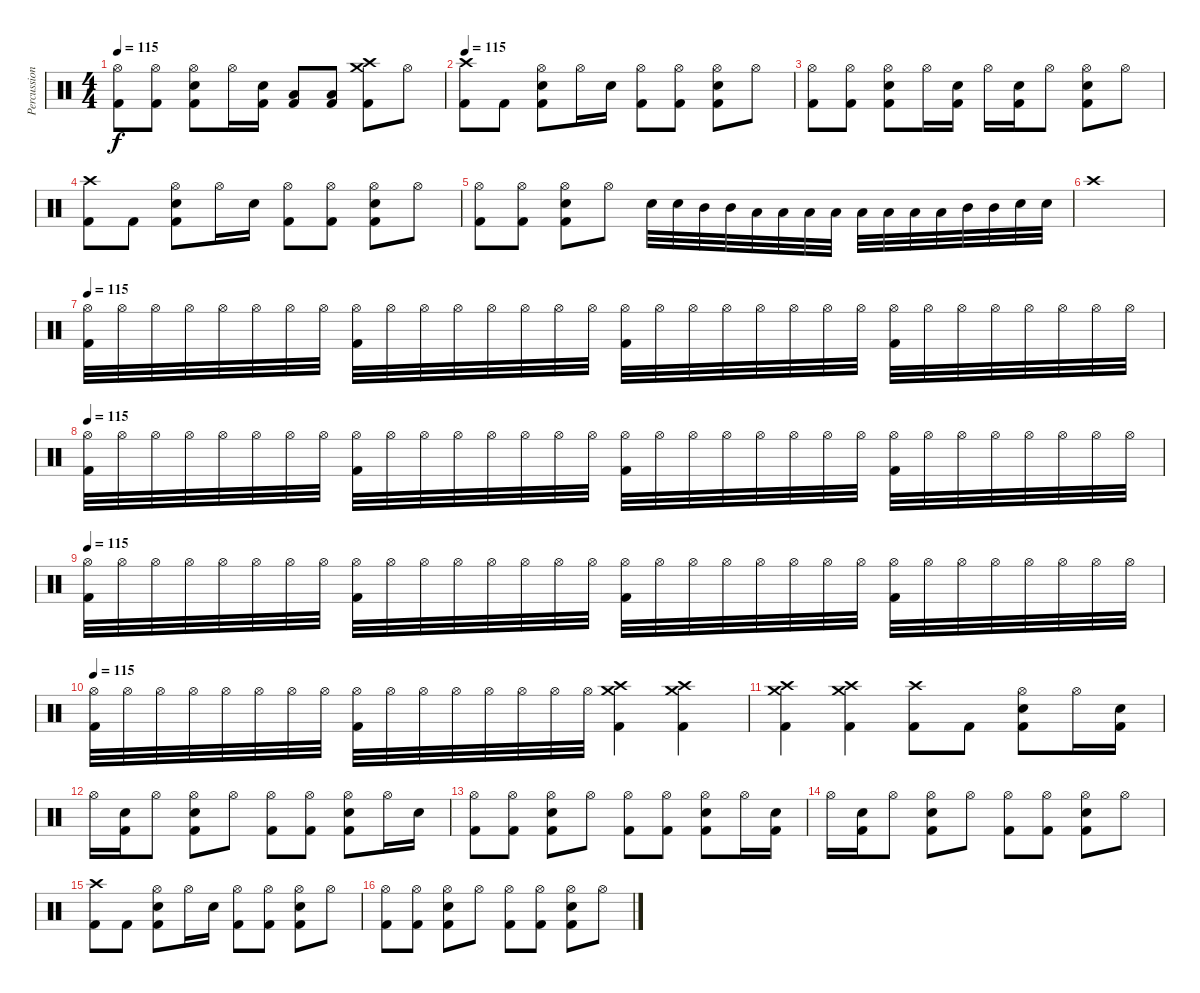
\track ("Percussion" "Percussion") {instrument percussion}
\staff {score}
\articulation defaults
\ts (4 4)
\tempo 115
\clef neutral
\ks c
("Hi-Hat (open)" "Kick (hit) 2").8{dy f} ("Hi-Hat (open)" "Kick (hit) 2").8 ("Hi-Hat (open)" "Kick (hit) 2" "Snare (hit) 2").8 "Hi-Hat (open)".16 ("Kick (hit) 2" "Snare (hit) 2").16 ("Low Floor Tom (hit)" "Kick (hit) 2").8 ("Low Floor Tom (hit)" "Kick (hit) 2").8 ("Crash medium (hit)" "Crash high (hit)" "Kick (hit) 2").8 "Hi-Hat (open)".8 |
\tempo 115
("Crash high (hit)" "Kick (hit) 2").8 "Kick (hit) 2".8 ("Hi-Hat (open)" "Kick (hit) 2" "Snare (hit) 2").8 "Hi-Hat (open)".16 "Snare (hit) 2".16 ("Hi-Hat (open)" "Kick (hit) 2").8 ("Hi-Hat (open)" "Kick (hit) 2").8 ("Hi-Hat (open)" "Kick (hit) 2" "Snare (hit) 2").8 "Hi-Hat (open)".8 |
("Hi-Hat (open)" "Kick (hit) 2").8 ("Hi-Hat (open)" "Kick (hit) 2").8 ("Hi-Hat (open)" "Kick (hit) 2" "Snare (hit) 2").8 "Hi-Hat (open)".16 ("Kick (hit) 2" "Snare (hit) 2").16 "Hi-Hat (open)".16 ("Kick (hit) 2" "Snare (hit) 2").16 "Hi-Hat (open)".8 ("Hi-Hat (open)" "Kick (hit) 2" "Snare (hit) 2").8 "Hi-Hat (open)".8 |
("Crash high (hit)" "Kick (hit) 2").8 "Kick (hit) 2".8 ("Hi-Hat (open)" "Kick (hit) 2" "Snare (hit) 2").8 "Hi-Hat (open)".16 "Snare (hit) 2".16 ("Hi-Hat (open)" "Kick (hit) 2").8 ("Hi-Hat (open)" "Kick (hit) 2").8 ("Hi-Hat (open)" "Kick (hit) 2" "Snare (hit) 2").8 "Hi-Hat (open)".8 |
("Hi-Hat (open)" "Kick (hit) 2").8 ("Hi-Hat (open)" "Kick (hit) 2").8 ("Hi-Hat (open)" "Kick (hit) 2" "Snare (hit) 2").8 "Hi-Hat (open)".8 "Snare (hit) 2".32 "Snare (hit) 2".32 "Mid Tom (hit)".32 "Mid Tom (hit)".32 "Low Tom (hit)".32 "Low Tom (hit)".32 "Low Floor Tom (hit)".32 "Low Floor Tom (hit)".32 "Low Floor Tom (hit)".32 "Low Floor Tom (hit)".32 "Low Tom (hit)".32 "Low Tom (hit)".32 "Mid Tom (hit)".32 "Mid Tom (hit)".32 "Snare (hit) 2".32 "Snare (hit) 2".32 |
"Crash high (hit)".1 |
\tempo 115
("Hi-Hat (open)" "Kick (hit) 2").32 "Hi-Hat (open)".32 "Hi-Hat (open)".32 "Hi-Hat (open)".32 "Hi-Hat (open)".32 "Hi-Hat (open)".32 "Hi-Hat (open)".32 "Hi-Hat (open)".32 ("Hi-Hat (open)" "Kick (hit) 2").32 "Hi-Hat (open)".32 "Hi-Hat (open)".32 "Hi-Hat (open)".32 "Hi-Hat (open)".32 "Hi-Hat (open)".32 "Hi-Hat (open)".32 "Hi-Hat (open)".32 ("Hi-Hat (open)" "Kick (hit) 2").32 "Hi-Hat (open)".32 "Hi-Hat (open)".32 "Hi-Hat (open)".32 "Hi-Hat (open)".32 "Hi-Hat (open)".32 "Hi-Hat (open)".32 "Hi-Hat (open)".32 ("Hi-Hat (open)" "Kick (hit) 2").32 "Hi-Hat (open)".32 "Hi-Hat (open)".32 "Hi-Hat (open)".32 "Hi-Hat (open)".32 "Hi-Hat (open)".32 "Hi-Hat (open)".32 "Hi-Hat (open)".32 |
\tempo 115
("Hi-Hat (open)" "Kick (hit) 2").32 "Hi-Hat (open)".32 "Hi-Hat (open)".32 "Hi-Hat (open)".32 "Hi-Hat (open)".32 "Hi-Hat (open)".32 "Hi-Hat (open)".32 "Hi-Hat (open)".32 ("Hi-Hat (open)" "Kick (hit) 2").32 "Hi-Hat (open)".32 "Hi-Hat (open)".32 "Hi-Hat (open)".32 "Hi-Hat (open)".32 "Hi-Hat (open)".32 "Hi-Hat (open)".32 "Hi-Hat (open)".32 ("Hi-Hat (open)" "Kick (hit) 2").32 "Hi-Hat (open)".32 "Hi-Hat (open)".32 "Hi-Hat (open)".32 "Hi-Hat (open)".32 "Hi-Hat (open)".32 "Hi-Hat (open)".32 "Hi-Hat (open)".32 ("Hi-Hat (open)" "Kick (hit) 2").32 "Hi-Hat (open)".32 "Hi-Hat (open)".32 "Hi-Hat (open)".32 "Hi-Hat (open)".32 "Hi-Hat (open)".32 "Hi-Hat (open)".32 "Hi-Hat (open)".32 |
\tempo 115
("Hi-Hat (open)" "Kick (hit) 2").32 "Hi-Hat (open)".32 "Hi-Hat (open)".32 "Hi-Hat (open)".32 "Hi-Hat (open)".32 "Hi-Hat (open)".32 "Hi-Hat (open)".32 "Hi-Hat (open)".32 ("Hi-Hat (open)" "Kick (hit) 2").32 "Hi-Hat (open)".32 "Hi-Hat (open)".32 "Hi-Hat (open)".32 "Hi-Hat (open)".32 "Hi-Hat (open)".32 "Hi-Hat (open)".32 "Hi-Hat (open)".32 ("Hi-Hat (open)" "Kick (hit) 2").32 "Hi-Hat (open)".32 "Hi-Hat (open)".32 "Hi-Hat (open)".32 "Hi-Hat (open)".32 "Hi-Hat (open)".32 "Hi-Hat (open)".32 "Hi-Hat (open)".32 ("Hi-Hat (open)" "Kick (hit) 2").32 "Hi-Hat (open)".32 "Hi-Hat (open)".32 "Hi-Hat (open)".32 "Hi-Hat (open)".32 "Hi-Hat (open)".32 "Hi-Hat (open)".32 "Hi-Hat (open)".32 |
\tempo 115
("Hi-Hat (open)" "Kick (hit) 2").32 "Hi-Hat (open)".32 "Hi-Hat (open)".32 "Hi-Hat (open)".32 "Hi-Hat (open)".32 "Hi-Hat (open)".32 "Hi-Hat (open)".32 "Hi-Hat (open)".32 ("Hi-Hat (open)" "Kick (hit) 2").32 "Hi-Hat (open)".32 "Hi-Hat (open)".32 "Hi-Hat (open)".32 "Hi-Hat (open)".32 "Hi-Hat (open)".32 "Hi-Hat (open)".32 "Hi-Hat (open)".32 ("Crash medium (hit)" "Crash high (hit)" "Kick (hit) 2").4 ("Crash medium (hit)" "Crash high (hit)" "Kick (hit) 2").4 |
("Crash medium (hit)" "Crash high (hit)" "Kick (hit) 2").4 ("Crash medium (hit)" "Crash high (hit)" "Kick (hit) 2").4 ("Crash high (hit)" "Kick (hit) 2").8 "Kick (hit) 2".8 ("Hi-Hat (open)" "Kick (hit) 2" "Snare (hit) 2").8 "Hi-Hat (open)".16 ("Kick (hit) 2" "Snare (hit) 2").16 |
"Hi-Hat (open)".16 ("Kick (hit) 2" "Snare (hit) 2").16 "Hi-Hat (open)".8 ("Hi-Hat (open)" "Kick (hit) 2" "Snare (hit) 2").8 "Hi-Hat (open)".8 ("Hi-Hat (open)" "Kick (hit) 2").8 ("Hi-Hat (open)" "Kick (hit) 2").8 ("Hi-Hat (open)" "Kick (hit) 2" "Snare (hit) 2").8 "Hi-Hat (open)".16 "Snare (hit) 2".16 |
("Hi-Hat (open)" "Kick (hit) 2").8 ("Hi-Hat (open)" "Kick (hit) 2").8 ("Hi-Hat (open)" "Kick (hit) 2" "Snare (hit) 2").8 "Hi-Hat (open)".8 ("Hi-Hat (open)" "Kick (hit) 2").8 ("Hi-Hat (open)" "Kick (hit) 2").8 ("Hi-Hat (open)" "Kick (hit) 2" "Snare (hit) 2").8 "Hi-Hat (open)".16 ("Kick (hit) 2" "Snare (hit) 2").16 |
"Hi-Hat (open)".16 ("Kick (hit) 2" "Snare (hit) 2").16 "Hi-Hat (open)".8 ("Hi-Hat (open)" "Kick (hit) 2" "Snare (hit) 2").8 "Hi-Hat (open)".8 ("Hi-Hat (open)" "Kick (hit) 2").8 ("Hi-Hat (open)" "Kick (hit) 2").8 ("Hi-Hat (open)" "Kick (hit) 2" "Snare (hit) 2").8 "Hi-Hat (open)".8 |
("Crash high (hit)" "Kick (hit) 2").8 "Kick (hit) 2".8 ("Hi-Hat (open)" "Kick (hit) 2" "Snare (hit) 2").8 "Hi-Hat (open)".16 "Snare (hit) 2".16 ("Hi-Hat (open)" "Kick (hit) 2").8 ("Hi-Hat (open)" "Kick (hit) 2").8 ("Hi-Hat (open)" "Kick (hit) 2" "Snare (hit) 2").8 "Hi-Hat (open)".8 |
("Hi-Hat (open)" "Kick (hit) 2").8 ("Hi-Hat (open)" "Kick (hit) 2").8 ("Hi-Hat (open)" "Kick (hit) 2" "Snare (hit) 2").8 "Hi-Hat (open)".8 ("Hi-Hat (open)" "Kick (hit) 2").8 ("Hi-Hat (open)" "Kick (hit) 2").8 ("Hi-Hat (open)" "Kick (hit) 2" "Snare (hit) 2").8 "Hi-Hat (open)".8
